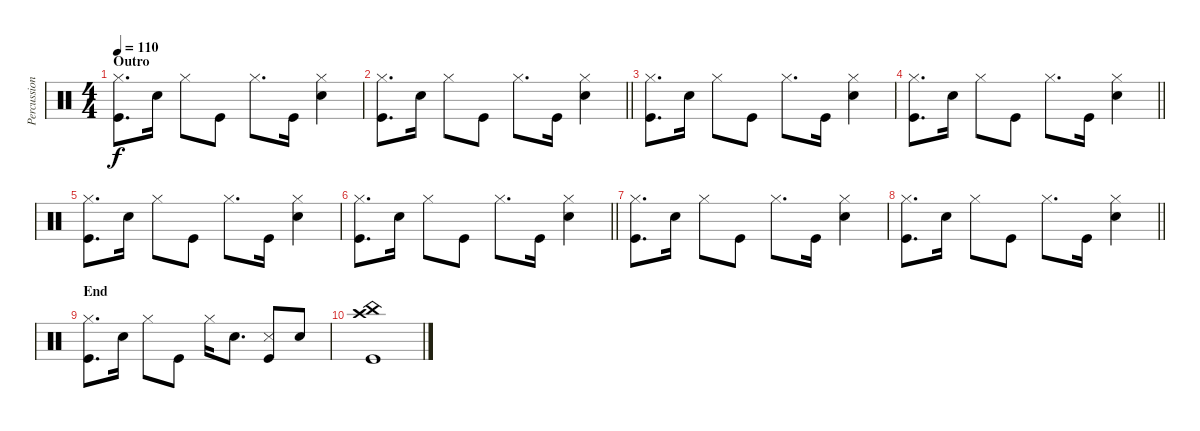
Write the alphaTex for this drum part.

\track ("Percussion" "Percussion") {instrument percussion}
\staff {score}
\articulation defaults
\ts (4 4)
\section ("" "Outro")
\tempo 110
\clef neutral
\ks c
("Hi-Hat (closed)" "Kick (hit)").8{d dy f} "Snare (hit) 2".16 "Hi-Hat (closed)".8 "Kick (hit)".8 "Hi-Hat (closed)".8{d} "Kick (hit)".16 ("Hi-Hat (closed)" "Snare (hit) 2").4 |
\barLineRight lightlight
("Hi-Hat (closed)" "Kick (hit)").8{d} "Snare (hit) 2".16 "Hi-Hat (closed)".8 "Kick (hit)".8 "Hi-Hat (closed)".8{d} "Kick (hit)".16 ("Hi-Hat (closed)" "Snare (hit) 2").4 |
("Hi-Hat (closed)" "Kick (hit)").8{d} "Snare (hit) 2".16 "Hi-Hat (closed)".8 "Kick (hit)".8 "Hi-Hat (closed)".8{d} "Kick (hit)".16 ("Hi-Hat (closed)" "Snare (hit) 2").4 |
\barLineRight lightlight
("Hi-Hat (closed)" "Kick (hit)").8{d} "Snare (hit) 2".16 "Hi-Hat (closed)".8 "Kick (hit)".8 "Hi-Hat (closed)".8{d} "Kick (hit)".16 ("Hi-Hat (closed)" "Snare (hit) 2").4 |
("Hi-Hat (closed)" "Kick (hit)").8{d} "Snare (hit) 2".16 "Hi-Hat (closed)".8 "Kick (hit)".8 "Hi-Hat (closed)".8{d} "Kick (hit)".16 ("Hi-Hat (closed)" "Snare (hit) 2").4 |
\barLineRight lightlight
("Hi-Hat (closed)" "Kick (hit)").8{d} "Snare (hit) 2".16 "Hi-Hat (closed)".8 "Kick (hit)".8 "Hi-Hat (closed)".8{d} "Kick (hit)".16 ("Hi-Hat (closed)" "Snare (hit) 2").4 |
("Hi-Hat (closed)" "Kick (hit)").8{d} "Snare (hit) 2".16 "Hi-Hat (closed)".8 "Kick (hit)".8 "Hi-Hat (closed)".8{d} "Kick (hit)".16 ("Hi-Hat (closed)" "Snare (hit) 2").4 |
\barLineRight lightlight
("Hi-Hat (closed)" "Kick (hit)").8{d} "Snare (hit) 2".16 "Hi-Hat (closed)".8 "Kick (hit)".8 "Hi-Hat (closed)".8{d} "Kick (hit)".16 ("Hi-Hat (closed)" "Snare (hit) 2").4 |
\section ("" "End")
("Hi-Hat (closed)" "Kick (hit)").8{d} "Snare (hit) 2".16 "Hi-Hat (closed)".8 "Kick (hit)".8 "Hi-Hat (closed)".16 "Snare (hit) 2".8{d} ("Kick (hit)" "Snare (side stick) 3").8 "Snare (hit) 2".8 |
("Kick (hit)" "Crash high (hit)" "China (hit)").1
